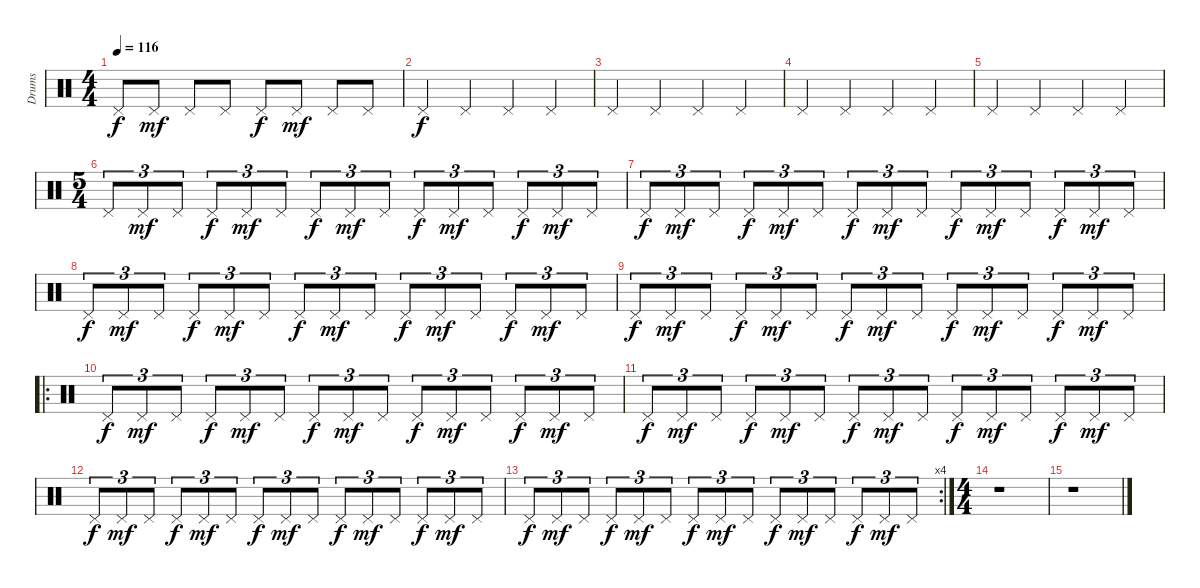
\track ("Drums" "Drums") {instrument percussion}
\staff {score}
\articulation defaults
\ts (4 4)
\tempo 116
\clef neutral
\ks c "Pedal Hi-Hat (hit)".8{dy f} "Pedal Hi-Hat (hit)".8{dy mf} "Pedal Hi-Hat (hit)".8 "Pedal Hi-Hat (hit)".8 "Pedal Hi-Hat (hit)".8{dy f} "Pedal Hi-Hat (hit)".8{dy mf} "Pedal Hi-Hat (hit)".8 "Pedal Hi-Hat (hit)".8
|
"Pedal Hi-Hat (hit)".4{dy f} "Pedal Hi-Hat (hit)".4 "Pedal Hi-Hat (hit)".4 "Pedal Hi-Hat (hit)".4 |
"Pedal Hi-Hat (hit)".4 "Pedal Hi-Hat (hit)".4 "Pedal Hi-Hat (hit)".4 "Pedal Hi-Hat (hit)".4 |
"Pedal Hi-Hat (hit)".4 "Pedal Hi-Hat (hit)".4 "Pedal Hi-Hat (hit)".4 "Pedal Hi-Hat (hit)".4 |
"Pedal Hi-Hat (hit)".4 "Pedal Hi-Hat (hit)".4 "Pedal Hi-Hat (hit)".4 "Pedal Hi-Hat (hit)".4 |
\ts (5 4)
"Pedal Hi-Hat (hit)".8{tu (3 2)} "Pedal Hi-Hat (hit)".8{tu (3 2) dy mf} "Pedal Hi-Hat (hit)".8{tu (3 2)} "Pedal Hi-Hat (hit)".8{tu (3 2) dy f} "Pedal Hi-Hat (hit)".8{tu (3 2) dy mf} "Pedal Hi-Hat (hit)".8{tu (3 2)} "Pedal Hi-Hat (hit)".8{tu (3 2) dy f} "Pedal Hi-Hat (hit)".8{tu (3 2) dy mf} "Pedal Hi-Hat (hit)".8{tu (3 2)} "Pedal Hi-Hat (hit)".8{tu (3 2) dy f} "Pedal Hi-Hat (hit)".8{tu (3 2) dy mf} "Pedal Hi-Hat (hit)".8{tu (3 2)} "Pedal Hi-Hat (hit)".8{tu (3 2) dy f} "Pedal Hi-Hat (hit)".8{tu (3 2) dy mf} "Pedal Hi-Hat (hit)".8{tu (3 2)} |
"Pedal Hi-Hat (hit)".8{tu (3 2) dy f} "Pedal Hi-Hat (hit)".8{tu (3 2) dy mf} "Pedal Hi-Hat (hit)".8{tu (3 2)} "Pedal Hi-Hat (hit)".8{tu (3 2) dy f} "Pedal Hi-Hat (hit)".8{tu (3 2) dy mf} "Pedal Hi-Hat (hit)".8{tu (3 2)} "Pedal Hi-Hat (hit)".8{tu (3 2) dy f} "Pedal Hi-Hat (hit)".8{tu (3 2) dy mf} "Pedal Hi-Hat (hit)".8{tu (3 2)} "Pedal Hi-Hat (hit)".8{tu (3 2) dy f} "Pedal Hi-Hat (hit)".8{tu (3 2) dy mf} "Pedal Hi-Hat (hit)".8{tu (3 2)} "Pedal Hi-Hat (hit)".8{tu (3 2) dy f} "Pedal Hi-Hat (hit)".8{tu (3 2) dy mf} "Pedal Hi-Hat (hit)".8{tu (3 2)} |
"Pedal Hi-Hat (hit)".8{tu (3 2) dy f} "Pedal Hi-Hat (hit)".8{tu (3 2) dy mf} "Pedal Hi-Hat (hit)".8{tu (3 2)} "Pedal Hi-Hat (hit)".8{tu (3 2) dy f} "Pedal Hi-Hat (hit)".8{tu (3 2) dy mf} "Pedal Hi-Hat (hit)".8{tu (3 2)} "Pedal Hi-Hat (hit)".8{tu (3 2) dy f} "Pedal Hi-Hat (hit)".8{tu (3 2) dy mf} "Pedal Hi-Hat (hit)".8{tu (3 2)} "Pedal Hi-Hat (hit)".8{tu (3 2) dy f} "Pedal Hi-Hat (hit)".8{tu (3 2) dy mf} "Pedal Hi-Hat (hit)".8{tu (3 2)} "Pedal Hi-Hat (hit)".8{tu (3 2) dy f} "Pedal Hi-Hat (hit)".8{tu (3 2) dy mf} "Pedal Hi-Hat (hit)".8{tu (3 2)} |
"Pedal Hi-Hat (hit)".8{tu (3 2) dy f} "Pedal Hi-Hat (hit)".8{tu (3 2) dy mf} "Pedal Hi-Hat (hit)".8{tu (3 2)} "Pedal Hi-Hat (hit)".8{tu (3 2) dy f} "Pedal Hi-Hat (hit)".8{tu (3 2) dy mf} "Pedal Hi-Hat (hit)".8{tu (3 2)} "Pedal Hi-Hat (hit)".8{tu (3 2) dy f} "Pedal Hi-Hat (hit)".8{tu (3 2) dy mf} "Pedal Hi-Hat (hit)".8{tu (3 2)} "Pedal Hi-Hat (hit)".8{tu (3 2) dy f} "Pedal Hi-Hat (hit)".8{tu (3 2) dy mf} "Pedal Hi-Hat (hit)".8{tu (3 2)} "Pedal Hi-Hat (hit)".8{tu (3 2) dy f} "Pedal Hi-Hat (hit)".8{tu (3 2) dy mf} "Pedal Hi-Hat (hit)".8{tu (3 2)} |
\ro "Pedal Hi-Hat (hit)".8{tu (3 2) dy f} "Pedal Hi-Hat (hit)".8{tu (3 2) dy mf} "Pedal Hi-Hat (hit)".8{tu (3 2)} "Pedal Hi-Hat (hit)".8{tu (3 2) dy f} "Pedal Hi-Hat (hit)".8{tu (3 2) dy mf} "Pedal Hi-Hat (hit)".8{tu (3 2)} "Pedal Hi-Hat (hit)".8{tu (3 2) dy f} "Pedal Hi-Hat (hit)".8{tu (3 2) dy mf} "Pedal Hi-Hat (hit)".8{tu (3 2)} "Pedal Hi-Hat (hit)".8{tu (3 2) dy f} "Pedal Hi-Hat (hit)".8{tu (3 2) dy mf} "Pedal Hi-Hat (hit)".8{tu (3 2)} "Pedal Hi-Hat (hit)".8{tu (3 2) dy f} "Pedal Hi-Hat (hit)".8{tu (3 2) dy mf} "Pedal Hi-Hat (hit)".8{tu (3 2)}
|
"Pedal Hi-Hat (hit)".8{tu (3 2) dy f} "Pedal Hi-Hat (hit)".8{tu (3 2) dy mf} "Pedal Hi-Hat (hit)".8{tu (3 2)} "Pedal Hi-Hat (hit)".8{tu (3 2) dy f} "Pedal Hi-Hat (hit)".8{tu (3 2) dy mf} "Pedal Hi-Hat (hit)".8{tu (3 2)} "Pedal Hi-Hat (hit)".8{tu (3 2) dy f} "Pedal Hi-Hat (hit)".8{tu (3 2) dy mf} "Pedal Hi-Hat (hit)".8{tu (3 2)} "Pedal Hi-Hat (hit)".8{tu (3 2) dy f} "Pedal Hi-Hat (hit)".8{tu (3 2) dy mf} "Pedal Hi-Hat (hit)".8{tu (3 2)} "Pedal Hi-Hat (hit)".8{tu (3 2) dy f} "Pedal Hi-Hat (hit)".8{tu (3 2) dy mf} "Pedal Hi-Hat (hit)".8{tu (3 2)} |
"Pedal Hi-Hat (hit)".8{tu (3 2) dy f} "Pedal Hi-Hat (hit)".8{tu (3 2) dy mf} "Pedal Hi-Hat (hit)".8{tu (3 2)} "Pedal Hi-Hat (hit)".8{tu (3 2) dy f} "Pedal Hi-Hat (hit)".8{tu (3 2) dy mf} "Pedal Hi-Hat (hit)".8{tu (3 2)} "Pedal Hi-Hat (hit)".8{tu (3 2) dy f} "Pedal Hi-Hat (hit)".8{tu (3 2) dy mf} "Pedal Hi-Hat (hit)".8{tu (3 2)} "Pedal Hi-Hat (hit)".8{tu (3 2) dy f} "Pedal Hi-Hat (hit)".8{tu (3 2) dy mf} "Pedal Hi-Hat (hit)".8{tu (3 2)} "Pedal Hi-Hat (hit)".8{tu (3 2) dy f} "Pedal Hi-Hat (hit)".8{tu (3 2) dy mf} "Pedal Hi-Hat (hit)".8{tu (3 2)} |
\rc 4 "Pedal Hi-Hat (hit)".8{tu (3 2) dy f} "Pedal Hi-Hat (hit)".8{tu (3 2) dy mf} "Pedal Hi-Hat (hit)".8{tu (3 2)} "Pedal Hi-Hat (hit)".8{tu (3 2) dy f} "Pedal Hi-Hat (hit)".8{tu (3 2) dy mf} "Pedal Hi-Hat (hit)".8{tu (3 2)} "Pedal Hi-Hat (hit)".8{tu (3 2) dy f} "Pedal Hi-Hat (hit)".8{tu (3 2) dy mf} "Pedal Hi-Hat (hit)".8{tu (3 2)} "Pedal Hi-Hat (hit)".8{tu (3 2) dy f} "Pedal Hi-Hat (hit)".8{tu (3 2) dy mf} "Pedal Hi-Hat (hit)".8{tu (3 2)} "Pedal Hi-Hat (hit)".8{tu (3 2) dy f} "Pedal Hi-Hat (hit)".8{tu (3 2) dy mf} "Pedal Hi-Hat (hit)".8{tu (3 2)}
|
\ts (4 4)
r.1 |
r.1
